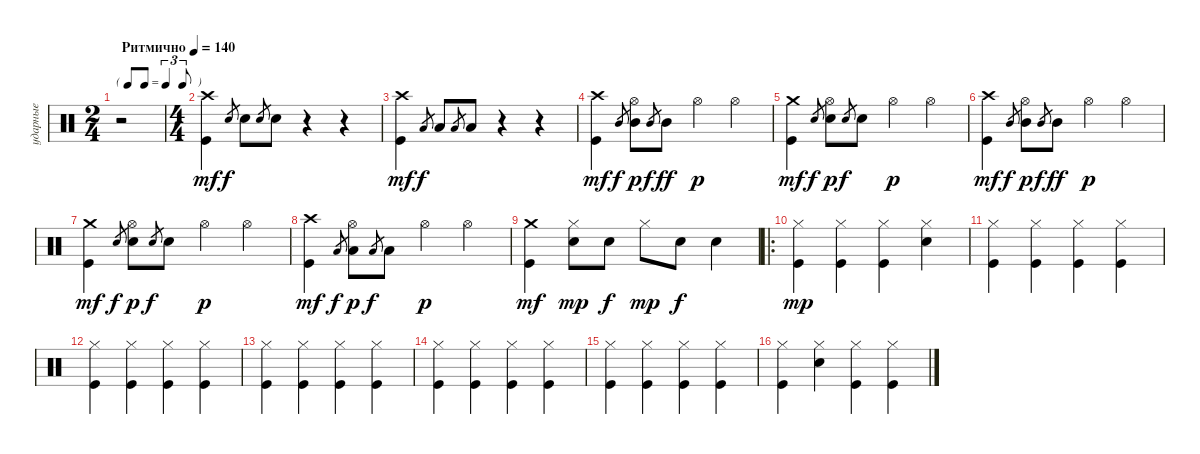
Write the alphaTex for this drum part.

\track ("ударные" "ударные") {instrument percussion}
\staff {score}
\articulation defaults
\ts (2 4)
\tf triplet8th
\tempo (140 "Ритмично")
\clef neutral
\ks aminor
r.2{dy mf} |
\ts (4 4)
("Kick (hit)" "Crash high (hit)").4 "Snare (hit) 2".8{gr dy f} "Snare (hit) 2".8 "Snare (hit) 2".8{gr} "Snare (hit) 2".8 r.4 r.4 |
("Kick (hit)" "Crash high (hit)").4{dy mf} "Low Tom (hit)".8{gr dy f} "Low Tom (hit)".8 "Low Tom (hit)".8{gr} "Low Tom (hit)".8 r.4 r.4 |
("Kick (hit)" "Crash high (hit)").4{dy mf} "Mid Tom (hit)".8{gr dy f} ("Mid Tom (hit)" "Hi-Hat (open)").8{dy p} "Mid Tom (hit)".8{gr dy f} "Mid Tom (hit)".8{dy ff} "Hi-Hat (open)".4{dy p} "Hi-Hat (open)".4 |
("Kick (hit)" "Crash medium (hit)").4{dy mf} "Snare (hit) 2".8{gr dy f} ("Snare (hit) 2" "Hi-Hat (open)").8{dy p} "Snare (hit) 2".8{gr dy f} "Snare (hit) 2".8 "Hi-Hat (open)".4{dy p} "Hi-Hat (open)".4 |
("Kick (hit)" "Crash high (hit)").4{dy mf} "Mid Tom (hit)".8{gr dy f} ("Mid Tom (hit)" "Hi-Hat (open)").8{dy p} "Mid Tom (hit)".8{gr dy f} "Mid Tom (hit)".8{dy ff} "Hi-Hat (open)".4{dy p} "Hi-Hat (open)".4 |
("Kick (hit)" "Crash medium (hit)").4{dy mf} "Snare (hit) 2".8{gr dy f} ("Snare (hit) 2" "Hi-Hat (open)").8{dy p} "Snare (hit) 2".8{gr dy f} "Snare (hit) 2".8 "Hi-Hat (open)".4{dy p} "Hi-Hat (open)".4 |
("Kick (hit)" "Crash high (hit)").4{dy mf} "Low Tom (hit)".8{gr dy f} ("Low Tom (hit)" "Hi-Hat (open)").8{dy p} "Low Tom (hit)".8{gr dy f} "Low Tom (hit)".8 "Hi-Hat (open)".4{dy p} "Hi-Hat (open)".4 |
("Kick (hit)" "Crash medium (hit)").4{dy mf} ("Snare (hit) 2" "Hi-Hat (closed)").8{dy mp} "Snare (hit) 2".8{dy f} "Hi-Hat (closed)".8{dy mp} "Snare (hit) 2".8{dy f} "Snare (hit) 2".4 |
\ro
("Kick (hit)" "Hi-Hat (closed)").4{dy mp} ("Kick (hit)" "Hi-Hat (closed)").4 ("Kick (hit)" "Hi-Hat (closed)").4 ("Snare (hit) 2" "Hi-Hat (closed)").4 |
("Kick (hit)" "Hi-Hat (closed)").4 ("Kick (hit)" "Hi-Hat (closed)").4 ("Kick (hit)" "Hi-Hat (closed)").4 ("Kick (hit)" "Hi-Hat (closed)").4 |
("Kick (hit)" "Hi-Hat (closed)").4 ("Kick (hit)" "Hi-Hat (closed)").4 ("Kick (hit)" "Hi-Hat (closed)").4 ("Kick (hit)" "Hi-Hat (closed)").4 |
("Kick (hit)" "Hi-Hat (closed)").4 ("Kick (hit)" "Hi-Hat (closed)").4 ("Kick (hit)" "Hi-Hat (closed)").4 ("Kick (hit)" "Hi-Hat (closed)").4 |
("Kick (hit)" "Hi-Hat (closed)").4 ("Kick (hit)" "Hi-Hat (closed)").4 ("Kick (hit)" "Hi-Hat (closed)").4 ("Kick (hit)" "Hi-Hat (closed)").4 |
("Kick (hit)" "Hi-Hat (closed)").4 ("Kick (hit)" "Hi-Hat (closed)").4 ("Kick (hit)" "Hi-Hat (closed)").4 ("Kick (hit)" "Hi-Hat (closed)").4 |
("Kick (hit)" "Hi-Hat (closed)").4 ("Snare (hit) 2" "Hi-Hat (closed)").4 ("Kick (hit)" "Hi-Hat (closed)").4 ("Kick (hit)" "Hi-Hat (closed)").4
